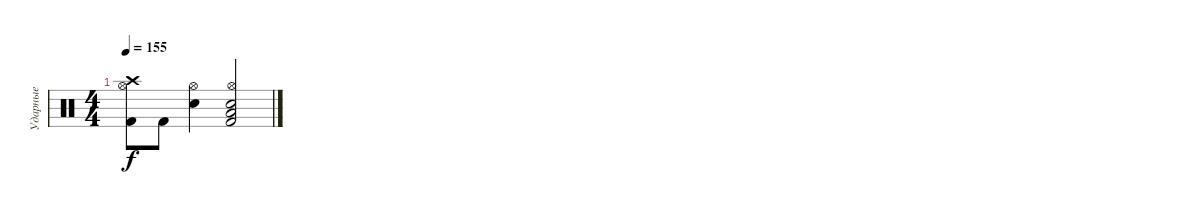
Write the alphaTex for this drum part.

\track ("Ударные" "Ударные") {instrument percussion}
\staff {score}
\articulation defaults
\ts (4 4)
\tempo 155
\clef neutral
\ks c
("Kick (hit) 2" "Hi-Hat (open)" "Crash high (hit)").8{dy f} "Kick (hit) 2".8 ("Snare (hit) 2" "Hi-Hat (open)").4 ("Kick (hit) 2" "Snare (hit) 2" "Hi-Hat (open)" "Low Floor Tom (hit)").2
